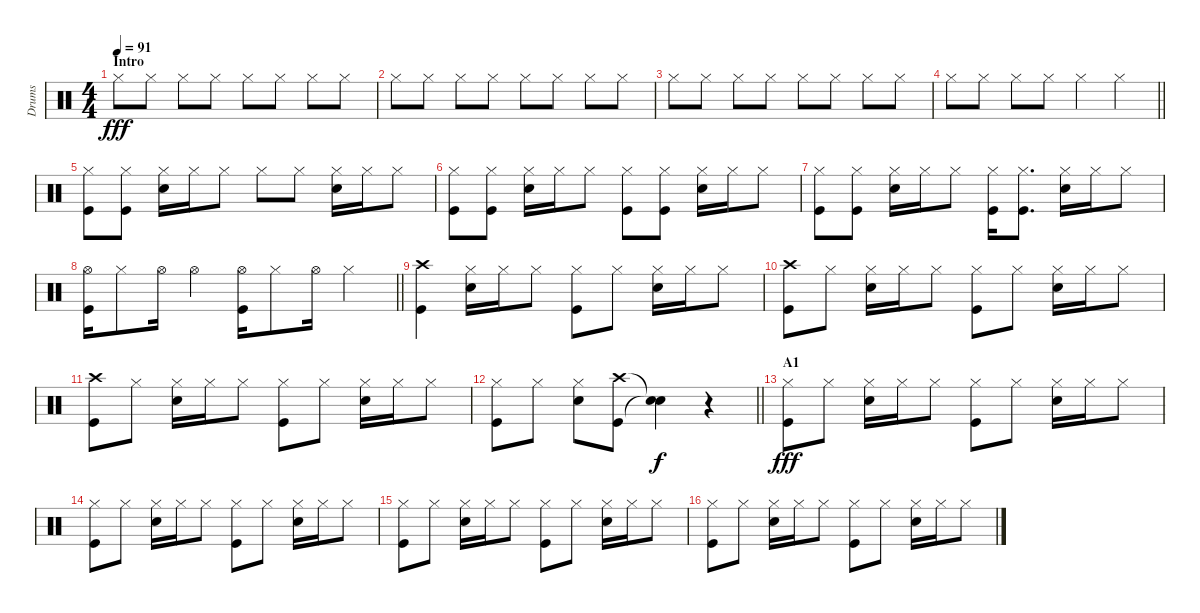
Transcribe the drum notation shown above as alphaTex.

\track ("Drums" "Drums") {instrument percussion}
\staff {score}
\articulation defaults
\ts (4 4)
\section ("" "Intro")
\tempo 91
\clef neutral
\ks c "Hi-Hat (closed)".8{dy fff} "Hi-Hat (closed)".8 "Hi-Hat (closed)".8 "Hi-Hat (closed)".8 "Hi-Hat (closed)".8 "Hi-Hat (closed)".8 "Hi-Hat (closed)".8 "Hi-Hat (closed)".8
|
"Hi-Hat (closed)".8 "Hi-Hat (closed)".8 "Hi-Hat (closed)".8 "Hi-Hat (closed)".8 "Hi-Hat (closed)".8 "Hi-Hat (closed)".8 "Hi-Hat (closed)".8 "Hi-Hat (closed)".8 |
"Hi-Hat (closed)".8 "Hi-Hat (closed)".8 "Hi-Hat (closed)".8 "Hi-Hat (closed)".8 "Hi-Hat (closed)".8 "Hi-Hat (closed)".8 "Hi-Hat (closed)".8 "Hi-Hat (closed)".8 |
\barLineRight lightlight "Hi-Hat (closed)".8 "Hi-Hat (closed)".8 "Hi-Hat (closed)".8 "Hi-Hat (closed)".8 "Hi-Hat (closed)".4 "Hi-Hat (closed)".4
|
("Hi-Hat (closed)" "Kick (hit)").8 ("Hi-Hat (closed)" "Kick (hit)").8 ("Hi-Hat (closed)" "Snare (hit) 2").16 "Hi-Hat (closed)".16 "Hi-Hat (closed)".8 "Hi-Hat (closed)".8 "Hi-Hat (closed)".8 ("Hi-Hat (closed)" "Snare (hit) 2").16 "Hi-Hat (closed)".16 "Hi-Hat (closed)".8 |
("Hi-Hat (closed)" "Kick (hit)").8 ("Hi-Hat (closed)" "Kick (hit)").8 ("Hi-Hat (closed)" "Snare (hit) 2").16 "Hi-Hat (closed)".16 "Hi-Hat (closed)".8 ("Hi-Hat (closed)" "Kick (hit)").8 ("Hi-Hat (closed)" "Kick (hit)").8 ("Hi-Hat (closed)" "Snare (hit) 2").16 "Hi-Hat (closed)".16 "Hi-Hat (closed)".8 |
("Hi-Hat (closed)" "Kick (hit)").8 ("Hi-Hat (closed)" "Kick (hit)").8 ("Hi-Hat (closed)" "Snare (hit) 2").16 "Hi-Hat (closed)".16 "Hi-Hat (closed)".8 ("Hi-Hat (closed)" "Kick (hit)").16 ("Hi-Hat (closed)" "Kick (hit)").8{d} ("Hi-Hat (closed)" "Snare (hit) 2").16 "Hi-Hat (closed)".16 "Hi-Hat (closed)".8 |
\barLineRight lightlight
("Hi-Hat (open)" "Kick (hit)").16 "Hi-Hat (closed)".8 "Hi-Hat (open)".16 "Hi-Hat (open)".4 ("Hi-Hat (open)" "Kick (hit)").16 "Hi-Hat (closed)".8 "Hi-Hat (open)".16 "Hi-Hat (closed)".4 |
("Crash high (hit)" "Kick (hit)").4 ("Hi-Hat (closed)" "Snare (hit) 2").16 "Hi-Hat (closed)".16 "Hi-Hat (closed)".8 ("Hi-Hat (closed)" "Kick (hit)").8 "Hi-Hat (closed)".8 ("Hi-Hat (closed)" "Snare (hit) 2").16 "Hi-Hat (closed)".16 "Hi-Hat (closed)".8 |
("Crash high (hit)" "Kick (hit)").8 "Hi-Hat (closed)".8 ("Hi-Hat (closed)" "Snare (hit) 2").16 "Hi-Hat (closed)".16 "Hi-Hat (closed)".8 ("Hi-Hat (closed)" "Kick (hit)").8 "Hi-Hat (closed)".8 ("Hi-Hat (closed)" "Snare (hit) 2").16 "Hi-Hat (closed)".16 "Hi-Hat (closed)".8 |
("Crash high (hit)" "Kick (hit)").8 "Hi-Hat (closed)".8 ("Hi-Hat (closed)" "Snare (hit) 2").16 "Hi-Hat (closed)".16 "Hi-Hat (closed)".8 ("Hi-Hat (closed)" "Kick (hit)").8 "Hi-Hat (closed)".8 ("Hi-Hat (closed)" "Snare (hit) 2").16 "Hi-Hat (closed)".16 "Hi-Hat (closed)".8 |
\barLineRight lightlight
("Hi-Hat (closed)" "Kick (hit)").8 "Hi-Hat (closed)".8 ("Hi-Hat (closed)" "Snare (hit) 2").8 ("Crash high (hit)" "Kick (hit)").8 ("Snare (hit)"{t} "Snare (hit)"{t}).4{dy f} r.4 |
\section ("" "A1")
("Hi-Hat (closed)" "Kick (hit)").8{dy fff} "Hi-Hat (closed)".8 ("Hi-Hat (closed)" "Snare (hit) 2").16 "Hi-Hat (closed)".16 "Hi-Hat (closed)".8 ("Hi-Hat (closed)" "Kick (hit)").8 "Hi-Hat (closed)".8 ("Hi-Hat (closed)" "Snare (hit) 2").16 "Hi-Hat (closed)".16 "Hi-Hat (closed)".8 |
("Hi-Hat (closed)" "Kick (hit)").8 "Hi-Hat (closed)".8 ("Hi-Hat (closed)" "Snare (hit) 2").16 "Hi-Hat (closed)".16 "Hi-Hat (closed)".8 ("Hi-Hat (closed)" "Kick (hit)").8 "Hi-Hat (closed)".8 ("Hi-Hat (closed)" "Snare (hit) 2").16 "Hi-Hat (closed)".16 "Hi-Hat (closed)".8 |
("Hi-Hat (closed)" "Kick (hit)").8 "Hi-Hat (closed)".8 ("Hi-Hat (closed)" "Snare (hit) 2").16 "Hi-Hat (closed)".16 "Hi-Hat (closed)".8 ("Hi-Hat (closed)" "Kick (hit)").8 "Hi-Hat (closed)".8 ("Hi-Hat (closed)" "Snare (hit) 2").16 "Hi-Hat (closed)".16 "Hi-Hat (closed)".8 |
("Hi-Hat (closed)" "Kick (hit)").8 "Hi-Hat (closed)".8 ("Hi-Hat (closed)" "Snare (hit) 2").16 "Hi-Hat (closed)".16 "Hi-Hat (closed)".8 ("Hi-Hat (closed)" "Kick (hit)").8 "Hi-Hat (closed)".8 ("Hi-Hat (closed)" "Snare (hit) 2").16 "Hi-Hat (closed)".16 "Hi-Hat (closed)".8
